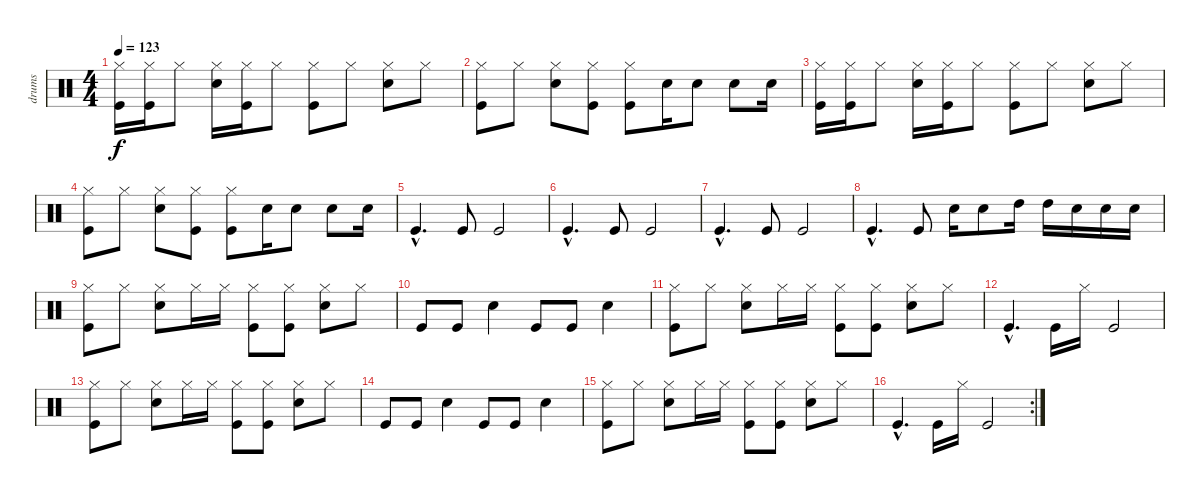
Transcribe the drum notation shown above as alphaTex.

\track ("drums" "drums") {instrument percussion}
\staff {score}
\articulation defaults
\ts (4 4)
\tempo 123
\clef neutral
\ks c
("Hi-Hat (closed)" "Kick (hit)").16{dy f} ("Hi-Hat (closed)" "Kick (hit)").16 "Hi-Hat (closed)".8 ("Hi-Hat (closed)" "Electric Snare (hit)").16 ("Hi-Hat (closed)" "Kick (hit)").16 "Hi-Hat (closed)".8 ("Hi-Hat (closed)" "Kick (hit)").8 "Hi-Hat (closed)".8 ("Hi-Hat (closed)" "Electric Snare (hit)").8 "Hi-Hat (closed)".8 |
("Hi-Hat (closed)" "Kick (hit)").8 "Hi-Hat (closed)".8 ("Hi-Hat (closed)" "Electric Snare (hit)").8 ("Hi-Hat (closed)" "Kick (hit)").8 ("Hi-Hat (closed)" "Kick (hit)").8 "Electric Snare (hit)".16 "Electric Snare (hit)".8 "Electric Snare (hit)".8 "Electric Snare (hit)".16 |
("Hi-Hat (closed)" "Kick (hit)").16 ("Hi-Hat (closed)" "Kick (hit)").16 "Hi-Hat (closed)".8 ("Hi-Hat (closed)" "Electric Snare (hit)").16 ("Hi-Hat (closed)" "Kick (hit)").16 "Hi-Hat (closed)".8 ("Hi-Hat (closed)" "Kick (hit)").8 "Hi-Hat (closed)".8 ("Hi-Hat (closed)" "Electric Snare (hit)").8 "Hi-Hat (closed)".8 |
("Hi-Hat (closed)" "Kick (hit)").8 "Hi-Hat (closed)".8 ("Hi-Hat (closed)" "Electric Snare (hit)").8 ("Hi-Hat (closed)" "Kick (hit)").8 ("Hi-Hat (closed)" "Kick (hit)").8 "Electric Snare (hit)".16 "Electric Snare (hit)".8 "Electric Snare (hit)".8 "Electric Snare (hit)".16 |
"Kick (hit)"{hac}.4{d} "Kick (hit)".8 "Kick (hit)".2 |
"Kick (hit)"{hac}.4{d} "Kick (hit)".8 "Kick (hit)".2 |
"Kick (hit)"{hac}.4{d} "Kick (hit)".8 "Kick (hit)".2 |
"Kick (hit)"{hac}.4{d} "Kick (hit)".8 "Electric Snare (hit)".16 "Electric Snare (hit)".8 "High Tom (hit)".16 "High Tom (hit)".16 "Electric Snare (hit)".16 "Electric Snare (hit)".16 "Electric Snare (hit)".16 |
("Hi-Hat (closed)" "Kick (hit)").8 "Hi-Hat (closed)".8 ("Hi-Hat (closed)" "Electric Snare (hit)").8 "Hi-Hat (closed)".16 "Hi-Hat (closed)".16 ("Hi-Hat (closed)" "Kick (hit)").8 ("Hi-Hat (closed)" "Kick (hit)").8 ("Hi-Hat (closed)" "Electric Snare (hit)").8 "Hi-Hat (closed)".8 |
"Kick (hit)".8 "Kick (hit)".8 "Electric Snare (hit)".4 "Kick (hit)".8 "Kick (hit)".8 "Electric Snare (hit)".4 |
("Hi-Hat (closed)" "Kick (hit)").8 "Hi-Hat (closed)".8 ("Hi-Hat (closed)" "Electric Snare (hit)").8 "Hi-Hat (closed)".16 "Hi-Hat (closed)".16 ("Hi-Hat (closed)" "Kick (hit)").8 ("Hi-Hat (closed)" "Kick (hit)").8 ("Hi-Hat (closed)" "Electric Snare (hit)").8 "Hi-Hat (closed)".8 |
"Kick (hit)"{hac}.4{d} "Kick (hit)".16 "Hi-Hat (closed)".16 "Kick (hit)".2 |
("Hi-Hat (closed)" "Kick (hit)").8 "Hi-Hat (closed)".8 ("Hi-Hat (closed)" "Electric Snare (hit)").8 "Hi-Hat (closed)".16 "Hi-Hat (closed)".16 ("Hi-Hat (closed)" "Kick (hit)").8 ("Hi-Hat (closed)" "Kick (hit)").8 ("Hi-Hat (closed)" "Electric Snare (hit)").8 "Hi-Hat (closed)".8 |
"Kick (hit)".8 "Kick (hit)".8 "Electric Snare (hit)".4 "Kick (hit)".8 "Kick (hit)".8 "Electric Snare (hit)".4 |
("Hi-Hat (closed)" "Kick (hit)").8 "Hi-Hat (closed)".8 ("Hi-Hat (closed)" "Electric Snare (hit)").8 "Hi-Hat (closed)".16 "Hi-Hat (closed)".16 ("Hi-Hat (closed)" "Kick (hit)").8 ("Hi-Hat (closed)" "Kick (hit)").8 ("Hi-Hat (closed)" "Electric Snare (hit)").8 "Hi-Hat (closed)".8 |
\rc 2 "Kick (hit)"{hac}.4{d} "Kick (hit)".16 "Hi-Hat (closed)".16 "Kick (hit)".2
